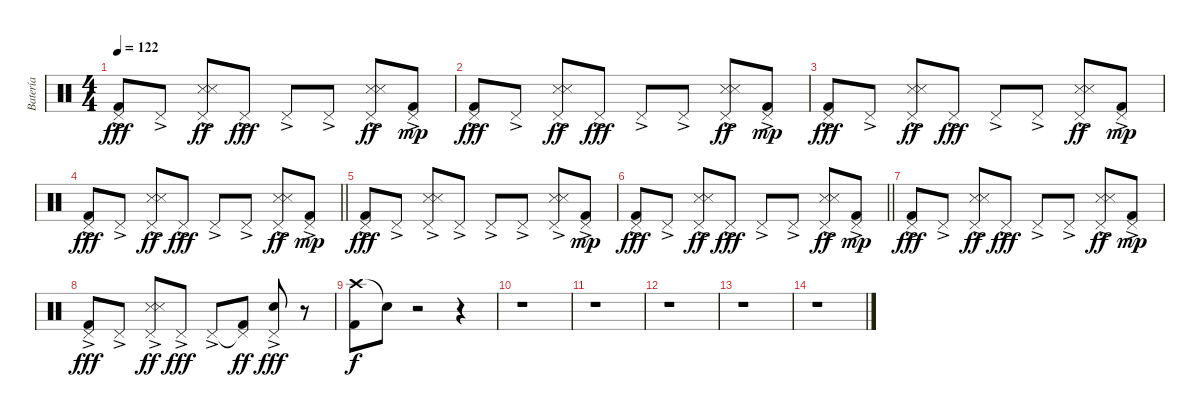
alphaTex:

\track ("Batería" "Batería") {instrument percussion}
\staff {score}
\articulation defaults
\ts (4 4)
\tempo 122
\clef neutral
\ks c
("Pedal Hi-Hat (hit)"{ac} "Kick (hit) 2").8{dy fff} "Pedal Hi-Hat (hit)"{ac}.8 ("Pedal Hi-Hat (hit)"{ac} "Metronome (hit)"{ac} "Snare (side stick) 3"{ac}).8{dy ff} "Pedal Hi-Hat (hit)"{ac}.8{dy fff} "Pedal Hi-Hat (hit)"{ac}.8 "Pedal Hi-Hat (hit)"{ac}.8 ("Pedal Hi-Hat (hit)"{ac} "Metronome (hit)"{ac} "Snare (side stick) 3"{ac}).8{dy ff} ("Pedal Hi-Hat (hit)"{ac} "Kick (hit) 2").8{dy mp} |
("Pedal Hi-Hat (hit)"{ac} "Kick (hit) 2").8{dy fff} "Pedal Hi-Hat (hit)"{ac}.8 ("Pedal Hi-Hat (hit)"{ac} "Metronome (hit)"{ac} "Snare (side stick) 3"{ac}).8{dy ff} "Pedal Hi-Hat (hit)"{ac}.8{dy fff} "Pedal Hi-Hat (hit)"{ac}.8 "Pedal Hi-Hat (hit)"{ac}.8 ("Pedal Hi-Hat (hit)"{ac} "Metronome (hit)"{ac} "Snare (side stick) 3"{ac}).8{dy ff} ("Pedal Hi-Hat (hit)"{ac} "Kick (hit) 2").8{dy mp} |
("Pedal Hi-Hat (hit)"{ac} "Kick (hit) 2").8{dy fff} "Pedal Hi-Hat (hit)"{ac}.8 ("Pedal Hi-Hat (hit)"{ac} "Metronome (hit)"{ac} "Snare (side stick) 3"{ac}).8{dy ff} "Pedal Hi-Hat (hit)"{ac}.8{dy fff} "Pedal Hi-Hat (hit)"{ac}.8 "Pedal Hi-Hat (hit)"{ac}.8 ("Pedal Hi-Hat (hit)"{ac} "Metronome (hit)"{ac} "Snare (side stick) 3"{ac}).8{dy ff} ("Pedal Hi-Hat (hit)"{ac} "Kick (hit) 2").8{dy mp} |
\barLineRight lightlight
("Pedal Hi-Hat (hit)"{ac} "Kick (hit) 2").8{dy fff} "Pedal Hi-Hat (hit)"{ac}.8 ("Pedal Hi-Hat (hit)"{ac} "Metronome (hit)"{ac} "Snare (side stick) 3"{ac}).8{dy ff} "Pedal Hi-Hat (hit)"{ac}.8{dy fff} "Pedal Hi-Hat (hit)"{ac}.8 "Pedal Hi-Hat (hit)"{ac}.8 ("Pedal Hi-Hat (hit)"{ac} "Metronome (hit)"{ac} "Snare (side stick) 3"{ac}).8{dy ff} ("Pedal Hi-Hat (hit)"{ac} "Kick (hit) 2").8{dy mp} |
("Pedal Hi-Hat (hit)"{ac} "Kick (hit) 2").8{dy fff} "Pedal Hi-Hat (hit)"{ac}.8 ("Pedal Hi-Hat (hit)"{ac} "Metronome (hit)"{ac} "Snare (side stick) 3"{ac}).8 "Pedal Hi-Hat (hit)"{ac}.8 "Pedal Hi-Hat (hit)"{ac}.8 "Pedal Hi-Hat (hit)"{ac}.8 ("Pedal Hi-Hat (hit)"{ac} "Metronome (hit)"{ac} "Snare (side stick) 3"{ac}).8 ("Pedal Hi-Hat (hit)"{ac} "Kick (hit) 2").8{dy mp} |
\barLineRight lightlight
("Pedal Hi-Hat (hit)"{ac} "Kick (hit) 2").8{dy fff} "Pedal Hi-Hat (hit)"{ac}.8 ("Pedal Hi-Hat (hit)"{ac} "Metronome (hit)"{ac} "Snare (side stick) 3"{ac}).8{dy ff} "Pedal Hi-Hat (hit)"{ac}.8{dy fff} "Pedal Hi-Hat (hit)"{ac}.8 "Pedal Hi-Hat (hit)"{ac}.8 ("Pedal Hi-Hat (hit)"{ac} "Metronome (hit)"{ac} "Snare (side stick) 3"{ac}).8{dy ff} ("Pedal Hi-Hat (hit)"{ac} "Kick (hit) 2").8{dy mp} |
("Pedal Hi-Hat (hit)"{ac} "Kick (hit) 2").8{dy fff} "Pedal Hi-Hat (hit)"{ac}.8 ("Pedal Hi-Hat (hit)"{ac} "Metronome (hit)"{ac} "Snare (side stick) 3"{ac}).8{dy ff} "Pedal Hi-Hat (hit)"{ac}.8{dy fff} "Pedal Hi-Hat (hit)"{ac}.8 "Pedal Hi-Hat (hit)"{ac}.8 ("Pedal Hi-Hat (hit)"{ac} "Metronome (hit)"{ac} "Snare (side stick) 3"{ac}).8{dy ff} ("Pedal Hi-Hat (hit)"{ac} "Kick (hit) 2").8{dy mp} |
("Pedal Hi-Hat (hit)"{ac} "Kick (hit) 2").8{dy fff} "Pedal Hi-Hat (hit)"{ac}.8 ("Pedal Hi-Hat (hit)"{ac} "Metronome (hit)"{ac} "Snare (side stick) 3"{ac}).8{dy ff} "Pedal Hi-Hat (hit)"{ac}.8{dy fff} "Pedal Hi-Hat (hit)"{ac}.8 ("Pedal Hi-Hat (hit)"{t} "Kick (hit) 2").8{dy ff} ("Pedal Hi-Hat (hit)"{ac} "Electric Snare (hit)").8{dy fff} r.8 |
("Crash high (hit)" "Kick (hit) 2").8{dy f} "Snare (hit)"{t}.8 r.2 r.4 |
r.1 |
r.1 |
r.1 |
r.1 |
r.1
